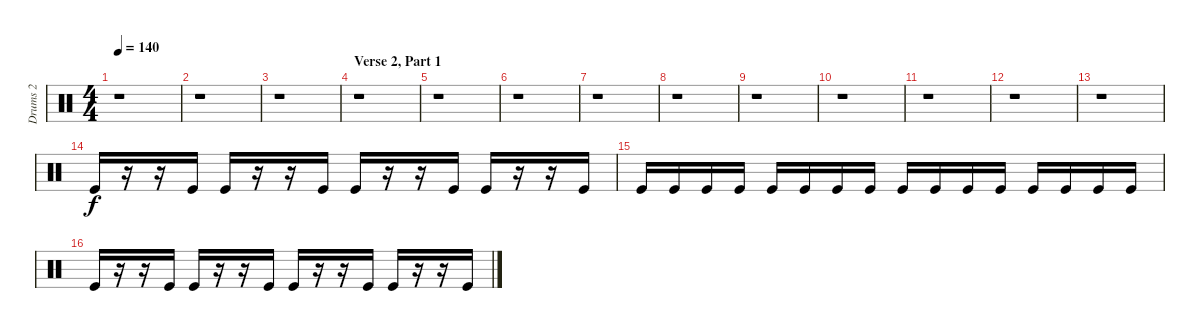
\track ("Drums 2" "Drums 2") {instrument percussion}
\staff {score}
\articulation defaults
\ts (4 4)
\tempo 140
\clef neutral
\ks c
r.1{dy f} |
r.1 |
r.1 |
\section ("" "Verse 2, Part 1")
r.1 |
r.1 |
r.1 |
r.1 |
r.1 |
r.1 |
r.1 |
r.1 |
r.1 |
r.1 |
"Kick (hit)".16 r.16 r.16 "Kick (hit)".16 "Kick (hit)".16 r.16 r.16 "Kick (hit)".16 "Kick (hit)".16 r.16 r.16 "Kick (hit)".16 "Kick (hit)".16 r.16 r.16 "Kick (hit)".16 |
"Kick (hit)".16 "Kick (hit)".16 "Kick (hit)".16 "Kick (hit)".16 "Kick (hit)".16 "Kick (hit)".16 "Kick (hit)".16 "Kick (hit)".16 "Kick (hit)".16 "Kick (hit)".16 "Kick (hit)".16 "Kick (hit)".16 "Kick (hit)".16 "Kick (hit)".16 "Kick (hit)".16 "Kick (hit)".16 |
"Kick (hit)".16 r.16 r.16 "Kick (hit)".16 "Kick (hit)".16 r.16 r.16 "Kick (hit)".16 "Kick (hit)".16 r.16 r.16 "Kick (hit)".16 "Kick (hit)".16 r.16 r.16 "Kick (hit)".16
